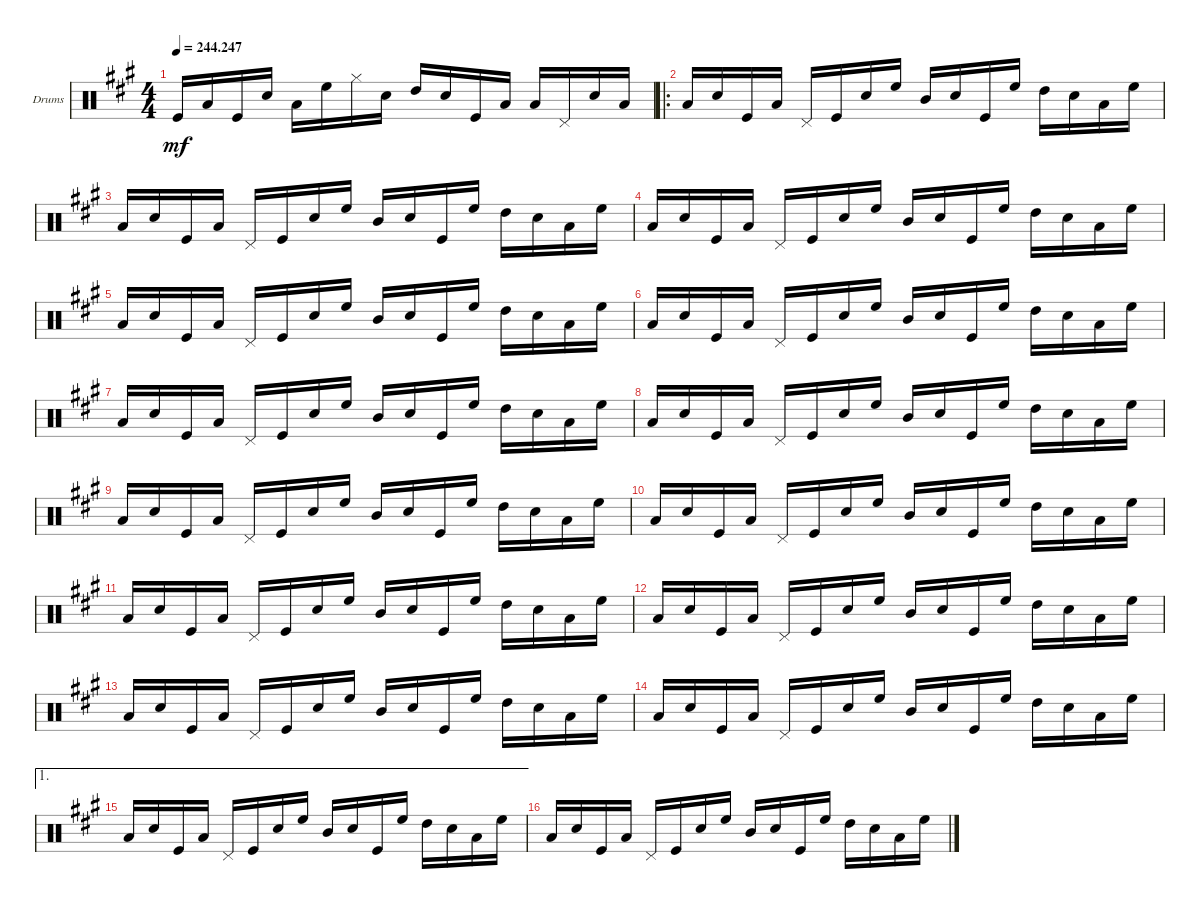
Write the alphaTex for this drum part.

\defaultSystemsLayout 4
\bracketExtendMode groupsimilarinstruments
\firstSystemTrackNameOrientation horizontal
\otherSystemsTrackNameOrientation horizontal
\track ("Drumkit" "Drums") {instrument percussion}
\staff {score}
\articulation defaults
\ts (4 4)
\tempo
244.247
\accidentals auto
\clef neutral
\ottava regular
\simile none
\scale
0.311111
\ks a "Kick (hit)".16{dy mf} "Low Tom (hit)".16 "Kick (hit)".16 "Snare (hit) 2".16 "Low Tom (hit)".16 "High Floor Tom (hit)".16 "Hi-Hat (closed)".16 "Snare (hit) 2".16 "High Tom (hit)".16 "Snare (hit) 2".16 "Kick (hit)".16 "Low Tom (hit)".16 "Low Tom (hit)".16 "Pedal Hi-Hat (hit)".16 "Snare (hit) 2".16 "Low Tom (hit)".16
|
\ro
\scale
0.377778 "Low Tom (hit)".16 "Snare (hit) 2".16 "Kick (hit)".16 "Low Tom (hit)".16 "Pedal Hi-Hat (hit)".16 "Kick (hit)".16 "Snare (hit) 2".16 "High Floor Tom (hit)".16 "Mid Tom (hit)".16 "Snare (hit) 2".16 "Kick (hit)".16 "High Floor Tom (hit)".16 "High Tom (hit)".16 "Snare (hit) 2".16 "Low Tom (hit)".16 "High Floor Tom (hit)".16 |
\scale
0.333333 "Low Tom (hit)".16 "Snare (hit) 2".16 "Kick (hit)".16 "Low Tom (hit)".16 "Pedal Hi-Hat (hit)".16 "Kick (hit)".16 "Snare (hit) 2".16 "High Floor Tom (hit)".16 "Mid Tom (hit)".16 "Snare (hit) 2".16 "Kick (hit)".16 "High Floor Tom (hit)".16 "High Tom (hit)".16 "Snare (hit) 2".16 "Low Tom (hit)".16 "High Floor Tom (hit)".16 |
\scale
0.333333 "Low Tom (hit)".16 "Snare (hit) 2".16 "Kick (hit)".16 "Low Tom (hit)".16 "Pedal Hi-Hat (hit)".16 "Kick (hit)".16 "Snare (hit) 2".16 "High Floor Tom (hit)".16 "Mid Tom (hit)".16 "Snare (hit) 2".16 "Kick (hit)".16 "High Floor Tom (hit)".16 "High Tom (hit)".16 "Snare (hit) 2".16 "Low Tom (hit)".16 "High Floor Tom (hit)".16 |
\scale
0.333333 "Low Tom (hit)".16 "Snare (hit) 2".16 "Kick (hit)".16 "Low Tom (hit)".16 "Pedal Hi-Hat (hit)".16 "Kick (hit)".16 "Snare (hit) 2".16 "High Floor Tom (hit)".16 "Mid Tom (hit)".16 "Snare (hit) 2".16 "Kick (hit)".16 "High Floor Tom (hit)".16 "High Tom (hit)".16 "Snare (hit) 2".16 "Low Tom (hit)".16 "High Floor Tom (hit)".16 |
\scale
0.333333 "Low Tom (hit)".16 "Snare (hit) 2".16 "Kick (hit)".16 "Low Tom (hit)".16 "Pedal Hi-Hat (hit)".16 "Kick (hit)".16 "Snare (hit) 2".16 "High Floor Tom (hit)".16 "Mid Tom (hit)".16 "Snare (hit) 2".16 "Kick (hit)".16 "High Floor Tom (hit)".16 "High Tom (hit)".16 "Snare (hit) 2".16 "Low Tom (hit)".16 "High Floor Tom (hit)".16 |
\scale
0.333333 "Low Tom (hit)".16 "Snare (hit) 2".16 "Kick (hit)".16 "Low Tom (hit)".16 "Pedal Hi-Hat (hit)".16 "Kick (hit)".16 "Snare (hit) 2".16 "High Floor Tom (hit)".16 "Mid Tom (hit)".16 "Snare (hit) 2".16 "Kick (hit)".16 "High Floor Tom (hit)".16 "High Tom (hit)".16 "Snare (hit) 2".16 "Low Tom (hit)".16 "High Floor Tom (hit)".16 |
\scale
0.333333 "Low Tom (hit)".16 "Snare (hit) 2".16 "Kick (hit)".16 "Low Tom (hit)".16 "Pedal Hi-Hat (hit)".16 "Kick (hit)".16 "Snare (hit) 2".16 "High Floor Tom (hit)".16 "Mid Tom (hit)".16 "Snare (hit) 2".16 "Kick (hit)".16 "High Floor Tom (hit)".16 "High Tom (hit)".16 "Snare (hit) 2".16 "Low Tom (hit)".16 "High Floor Tom (hit)".16 |
\scale
0.333333 "Low Tom (hit)".16 "Snare (hit) 2".16 "Kick (hit)".16 "Low Tom (hit)".16 "Pedal Hi-Hat (hit)".16 "Kick (hit)".16 "Snare (hit) 2".16 "High Floor Tom (hit)".16 "Mid Tom (hit)".16 "Snare (hit) 2".16 "Kick (hit)".16 "High Floor Tom (hit)".16 "High Tom (hit)".16 "Snare (hit) 2".16 "Low Tom (hit)".16 "High Floor Tom (hit)".16 |
\scale
0.333333 "Low Tom (hit)".16 "Snare (hit) 2".16 "Kick (hit)".16 "Low Tom (hit)".16 "Pedal Hi-Hat (hit)".16 "Kick (hit)".16 "Snare (hit) 2".16 "High Floor Tom (hit)".16 "Mid Tom (hit)".16 "Snare (hit) 2".16 "Kick (hit)".16 "High Floor Tom (hit)".16 "High Tom (hit)".16 "Snare (hit) 2".16 "Low Tom (hit)".16 "High Floor Tom (hit)".16 |
\scale
0.333333 "Low Tom (hit)".16 "Snare (hit) 2".16 "Kick (hit)".16 "Low Tom (hit)".16 "Pedal Hi-Hat (hit)".16 "Kick (hit)".16 "Snare (hit) 2".16 "High Floor Tom (hit)".16 "Mid Tom (hit)".16 "Snare (hit) 2".16 "Kick (hit)".16 "High Floor Tom (hit)".16 "High Tom (hit)".16 "Snare (hit) 2".16 "Low Tom (hit)".16 "High Floor Tom (hit)".16 |
\scale
0.333333 "Low Tom (hit)".16 "Snare (hit) 2".16 "Kick (hit)".16 "Low Tom (hit)".16 "Pedal Hi-Hat (hit)".16 "Kick (hit)".16 "Snare (hit) 2".16 "High Floor Tom (hit)".16 "Mid Tom (hit)".16 "Snare (hit) 2".16 "Kick (hit)".16 "High Floor Tom (hit)".16 "High Tom (hit)".16 "Snare (hit) 2".16 "Low Tom (hit)".16 "High Floor Tom (hit)".16 |
\scale
0.333333 "Low Tom (hit)".16 "Snare (hit) 2".16 "Kick (hit)".16 "Low Tom (hit)".16 "Pedal Hi-Hat (hit)".16 "Kick (hit)".16 "Snare (hit) 2".16 "High Floor Tom (hit)".16 "Mid Tom (hit)".16 "Snare (hit) 2".16 "Kick (hit)".16 "High Floor Tom (hit)".16 "High Tom (hit)".16 "Snare (hit) 2".16 "Low Tom (hit)".16 "High Floor Tom (hit)".16 |
\scale
0.333333 "Low Tom (hit)".16 "Snare (hit) 2".16 "Kick (hit)".16 "Low Tom (hit)".16 "Pedal Hi-Hat (hit)".16 "Kick (hit)".16 "Snare (hit) 2".16 "High Floor Tom (hit)".16 "Mid Tom (hit)".16 "Snare (hit) 2".16 "Kick (hit)".16 "High Floor Tom (hit)".16 "High Tom (hit)".16 "Snare (hit) 2".16 "Low Tom (hit)".16 "High Floor Tom (hit)".16 |
\ae 1
\scale
0.321839 "Low Tom (hit)".16 "Snare (hit) 2".16 "Kick (hit)".16 "Low Tom (hit)".16 "Pedal Hi-Hat (hit)".16 "Kick (hit)".16 "Snare (hit) 2".16 "High Floor Tom (hit)".16 "Mid Tom (hit)".16 "Snare (hit) 2".16 "Kick (hit)".16 "High Floor Tom (hit)".16 "High Tom (hit)".16 "Snare (hit) 2".16 "Low Tom (hit)".16 "High Floor Tom (hit)".16 |
\scale
0.321839 "Low Tom (hit)".16 "Snare (hit) 2".16 "Kick (hit)".16 "Low Tom (hit)".16 "Pedal Hi-Hat (hit)".16 "Kick (hit)".16 "Snare (hit) 2".16 "High Floor Tom (hit)".16 "Mid Tom (hit)".16 "Snare (hit) 2".16 "Kick (hit)".16 "High Floor Tom (hit)".16 "High Tom (hit)".16 "Snare (hit) 2".16 "Low Tom (hit)".16 "High Floor Tom (hit)".16
